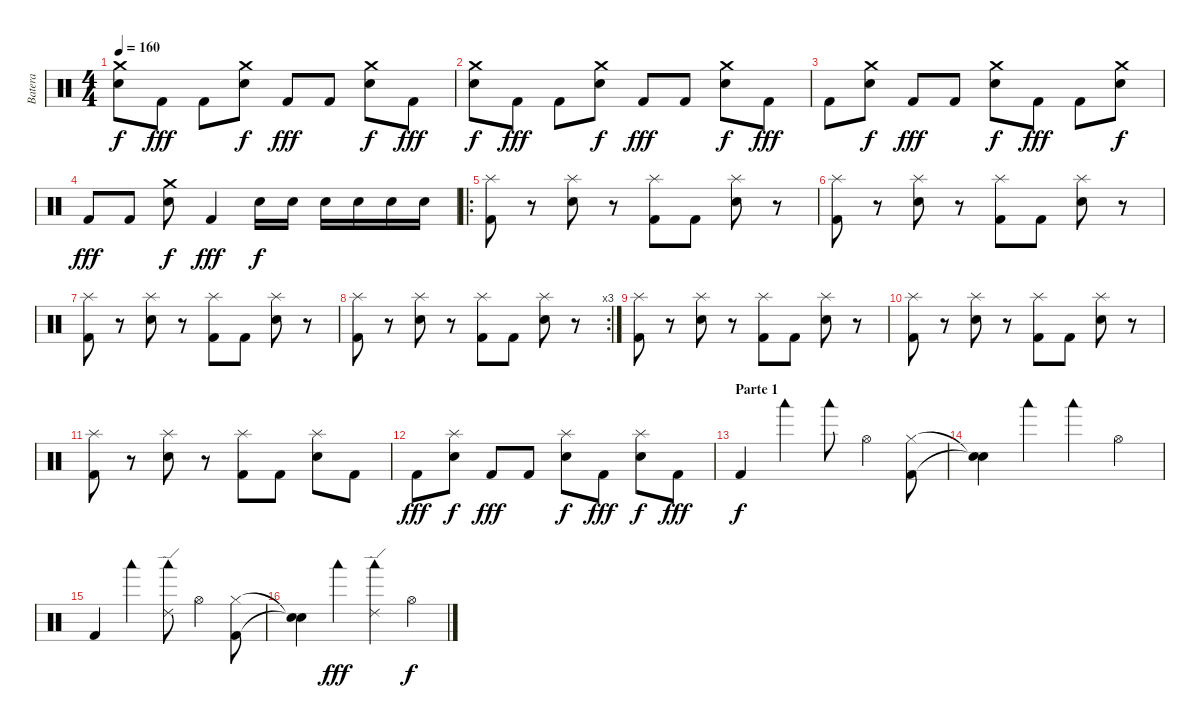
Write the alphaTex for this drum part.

\track ("Batera" "Batera") {instrument percussion}
\staff {score}
\articulation defaults
\ts (4 4)
\tempo 160
\clef neutral
\ks c
("Crash medium (hit)" "Electric Snare (hit)").8{dy f} "Kick (hit) 2".8{dy fff} "Kick (hit) 2".8 ("Crash medium (hit)" "Electric Snare (hit)").8{dy f} "Kick (hit) 2".8{dy fff} "Kick (hit) 2".8 ("Crash medium (hit)" "Electric Snare (hit)").8{dy f} "Kick (hit) 2".8{dy fff} |
("Crash medium (hit)" "Electric Snare (hit)").8{dy f} "Kick (hit) 2".8{dy fff} "Kick (hit) 2".8 ("Crash medium (hit)" "Electric Snare (hit)").8{dy f} "Kick (hit) 2".8{dy fff} "Kick (hit) 2".8 ("Crash medium (hit)" "Electric Snare (hit)").8{dy f} "Kick (hit) 2".8{dy fff} |
"Kick (hit) 2".8 ("Crash medium (hit)" "Electric Snare (hit)").8{dy f} "Kick (hit) 2".8{dy fff} "Kick (hit) 2".8 ("Crash medium (hit)" "Electric Snare (hit)").8{dy f} "Kick (hit) 2".8{dy fff} "Kick (hit) 2".8 ("Crash medium (hit)" "Electric Snare (hit)").8{dy f} |
"Kick (hit) 2".8{dy fff} "Kick (hit) 2".8 ("Crash medium (hit)" "Electric Snare (hit)").8{dy f} "Kick (hit) 2".4{dy fff} "Electric Snare (hit)".16{dy f} "Electric Snare (hit)".16 "Electric Snare (hit)".16 "Electric Snare (hit)".16 "Electric Snare (hit)".16 "Electric Snare (hit)".16 |
\ro
("Splash (hit)" "Kick (hit) 2").8 r.8 ("Splash (hit)" "Electric Snare (hit)").8 r.8 ("Splash (hit)" "Kick (hit) 2").8 "Kick (hit) 2".8 ("Splash (hit)" "Electric Snare (hit)").8 r.8 |
("Splash (hit)" "Kick (hit) 2").8 r.8 ("Splash (hit)" "Electric Snare (hit)").8 r.8 ("Splash (hit)" "Kick (hit) 2").8 "Kick (hit) 2".8 ("Splash (hit)" "Electric Snare (hit)").8 r.8 |
("Splash (hit)" "Kick (hit) 2").8 r.8 ("Splash (hit)" "Electric Snare (hit)").8 r.8 ("Splash (hit)" "Kick (hit) 2").8 "Kick (hit) 2".8 ("Splash (hit)" "Electric Snare (hit)").8 r.8 |
\rc 3
("Splash (hit)" "Kick (hit) 2").8 r.8 ("Splash (hit)" "Electric Snare (hit)").8 r.8 ("Splash (hit)" "Kick (hit) 2").8 "Kick (hit) 2".8 ("Splash (hit)" "Electric Snare (hit)").8 r.8 |
("Splash (hit)" "Kick (hit) 2").8 r.8 ("Splash (hit)" "Electric Snare (hit)").8 r.8 ("Splash (hit)" "Kick (hit) 2").8 "Kick (hit) 2".8 ("Splash (hit)" "Electric Snare (hit)").8 r.8 |
("Splash (hit)" "Kick (hit) 2").8 r.8 ("Splash (hit)" "Electric Snare (hit)").8 r.8 ("Splash (hit)" "Kick (hit) 2").8 "Kick (hit) 2".8 ("Splash (hit)" "Electric Snare (hit)").8 r.8 |
("Splash (hit)" "Kick (hit) 2").8 r.8 ("Splash (hit)" "Electric Snare (hit)").8 r.8 ("Splash (hit)" "Kick (hit) 2").8 "Kick (hit) 2".8 ("Splash (hit)" "Electric Snare (hit)").8 "Kick (hit) 2".8 |
"Kick (hit) 2".8{dy fff} ("Splash (hit)" "Electric Snare (hit)").8{dy f} "Kick (hit) 2".8{dy fff} "Kick (hit) 2".8 ("Splash (hit)" "Electric Snare (hit)").8{dy f} "Kick (hit) 2".8{dy fff} ("Splash (hit)" "Electric Snare (hit)").8{dy f} "Kick (hit) 2".8{dy fff} |
\section ("" "Parte 1")
"Kick (hit) 2".4{dy f} "Woodblock low (hit)".4 "Woodblock low (hit)".8 "Hi-Hat (open)".4 ("Hi-Hat (closed)" "Kick (hit) 2").8 |
("Snare (hit)"{t} "Snare (hit)"{t}).4 "Woodblock low (hit)".4 "Woodblock low (hit)".4 "Hi-Hat (open)".4 |
"Kick (hit) 2".4 "Woodblock low (hit)".4 ("Ride (edge) 2" "Woodblock low (hit)").8 "Hi-Hat (open)".4 ("Hi-Hat (closed)" "Kick (hit) 2").8 |
("Snare (hit)"{t} "Snare (hit)"{t}).4 "Woodblock low (hit)".4{dy fff} ("Ride (edge) 2" "Woodblock low (hit)").4 "Hi-Hat (open)".4{dy f}
